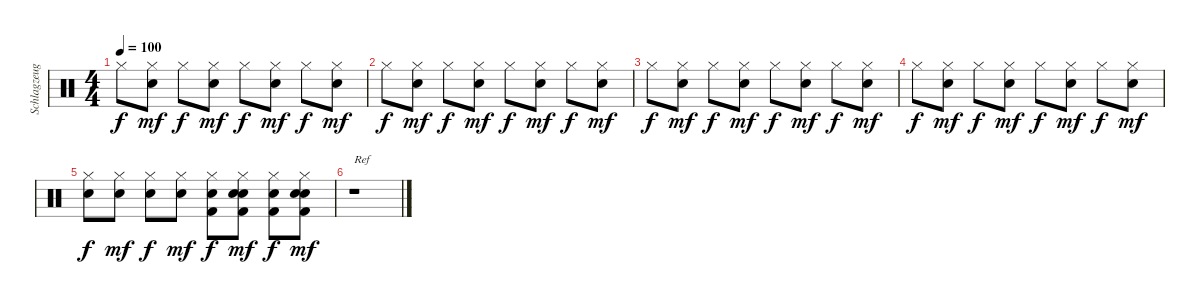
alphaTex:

\track ("Schlagzeug (Intro)" "Schlagzeug") {instrument percussion}
\staff {score}
\articulation defaults
\ts (4 4)
\tempo 100
\clef neutral
\ks c "Hi-Hat (closed)".8{dy f}
("Hand Clap (hit)" "Hi-Hat (closed)").8{dy mf} "Hi-Hat (closed)".8{dy f} ("Hand Clap (hit)" "Hi-Hat (closed)").8{dy mf} "Hi-Hat (closed)".8{dy f} ("Hand Clap (hit)" "Hi-Hat (closed)").8{dy mf} "Hi-Hat (closed)".8{dy f} ("Hand Clap (hit)" "Hi-Hat (closed)").8{dy mf} |
"Hi-Hat (closed)".8{dy f} ("Hand Clap (hit)" "Hi-Hat (closed)").8{dy mf} "Hi-Hat (closed)".8{dy f} ("Hand Clap (hit)" "Hi-Hat (closed)").8{dy mf} "Hi-Hat (closed)".8{dy f} ("Hand Clap (hit)" "Hi-Hat (closed)").8{dy mf} "Hi-Hat (closed)".8{dy f} ("Hand Clap (hit)" "Hi-Hat (closed)").8{dy mf} |
"Hi-Hat (closed)".8{dy f} ("Hand Clap (hit)" "Hi-Hat (closed)").8{dy mf} "Hi-Hat (closed)".8{dy f} ("Hand Clap (hit)" "Hi-Hat (closed)").8{dy mf} "Hi-Hat (closed)".8{dy f} ("Hand Clap (hit)" "Hi-Hat (closed)").8{dy mf} "Hi-Hat (closed)".8{dy f} ("Hand Clap (hit)" "Hi-Hat (closed)").8{dy mf} |
"Hi-Hat (closed)".8{dy f} ("Hand Clap (hit)" "Hi-Hat (closed)").8{dy mf} "Hi-Hat (closed)".8{dy f} ("Hand Clap (hit)" "Hi-Hat (closed)").8{dy mf} "Hi-Hat (closed)".8{dy f} ("Hand Clap (hit)" "Hi-Hat (closed)").8{dy mf} "Hi-Hat (closed)".8{dy f} ("Hand Clap (hit)" "Hi-Hat (closed)").8{dy mf} |
("Hi-Hat (closed)" "Snare (hit) 2").8{dy f} ("Hand Clap (hit)" "Hi-Hat (closed)").8{dy mf} ("Hi-Hat (closed)" "Snare (hit) 2").8{dy f} ("Hand Clap (hit)" "Hi-Hat (closed)").8{dy mf} ("Hi-Hat (closed)" "Snare (hit) 2" "Kick (hit) 2").8{dy f} ("Hand Clap (hit)" "Hi-Hat (closed)" "Snare (hit) 2" "Kick (hit) 2").8{dy mf} ("Hi-Hat (closed)" "Snare (hit) 2" "Kick (hit) 2").8{dy f} ("Hand Clap (hit)" "Hi-Hat (closed)" "Snare (hit) 2" "Kick (hit) 2").8{dy mf} |
r.1{txt "Ref"}
